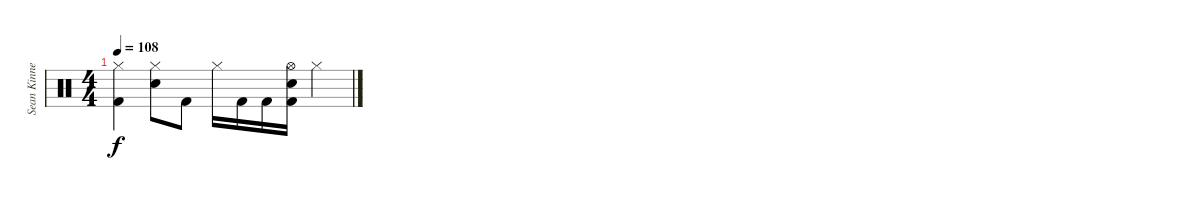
\track ("Sean Kinney - Drums" "Sean Kinne") {instrument percussion}
\staff {score}
\articulation defaults
\ts (4 4)
\tempo 108
\clef neutral
\ks c
("Hi-Hat (closed)" "Kick (hit) 2").4{dy f} ("Hi-Hat (closed)" "Electric Snare (hit)").8 "Kick (hit) 2".8 "Hi-Hat (closed)".16 "Kick (hit) 2".16 "Kick (hit) 2".16 ("Hi-Hat (open)" "Electric Snare (hit)" "Kick (hit) 2").16 "Hi-Hat (closed)".4
